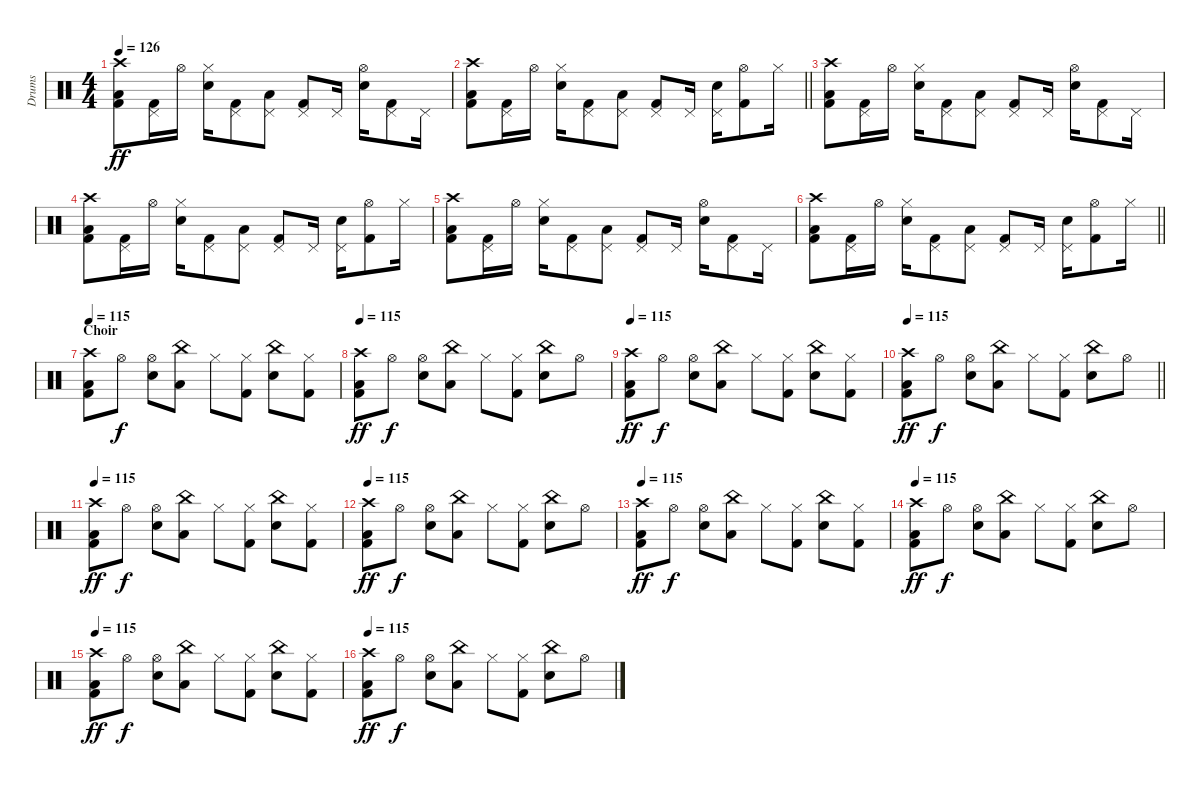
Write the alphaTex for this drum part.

\track ("Drums" "Drums") {instrument percussion}
\staff {score}
\articulation defaults
\ts (4 4)
\tempo 126
\clef neutral
\ks c
("Low Tom (hit)" "Kick (hit) 2" "Crash high (hit)").8{dy ff} ("Kick (hit) 2" "Pedal Hi-Hat (hit)").16 "Hi-Hat (open)".16 ("Snare (hit) 2" "Hi-Hat (closed)").16 ("Kick (hit) 2" "Pedal Hi-Hat (hit)").8 ("Low Tom (hit)" "Pedal Hi-Hat (hit)").8 ("Kick (hit) 2" "Pedal Hi-Hat (hit)").8 "Pedal Hi-Hat (hit)".16 ("Snare (hit) 2" "Hi-Hat (open)").16 ("Kick (hit) 2" "Pedal Hi-Hat (hit)").8 "Pedal Hi-Hat (hit)".16 |
\barLineRight lightlight
("Low Tom (hit)" "Kick (hit) 2" "Crash high (hit)").8 ("Kick (hit) 2" "Pedal Hi-Hat (hit)").16 "Hi-Hat (open)".16 ("Snare (hit) 2" "Hi-Hat (closed)").16 ("Kick (hit) 2" "Pedal Hi-Hat (hit)").8 ("Low Tom (hit)" "Pedal Hi-Hat (hit)").8 ("Kick (hit) 2" "Pedal Hi-Hat (hit)").8 "Pedal Hi-Hat (hit)".16 ("Snare (hit) 2" "Pedal Hi-Hat (hit)").16 ("Kick (hit) 2" "Hi-Hat (open)").8 "Hi-Hat (closed)".16 |
("Low Tom (hit)" "Kick (hit) 2" "Crash high (hit)").8 ("Kick (hit) 2" "Pedal Hi-Hat (hit)").16 "Hi-Hat (open)".16 ("Snare (hit) 2" "Hi-Hat (closed)").16 ("Kick (hit) 2" "Pedal Hi-Hat (hit)").8 ("Low Tom (hit)" "Pedal Hi-Hat (hit)").8 ("Kick (hit) 2" "Pedal Hi-Hat (hit)").8 "Pedal Hi-Hat (hit)".16 ("Snare (hit) 2" "Hi-Hat (open)").16 ("Kick (hit) 2" "Pedal Hi-Hat (hit)").8 "Pedal Hi-Hat (hit)".16 |
("Low Tom (hit)" "Kick (hit) 2" "Crash high (hit)").8 ("Kick (hit) 2" "Pedal Hi-Hat (hit)").16 "Hi-Hat (open)".16 ("Snare (hit) 2" "Hi-Hat (closed)").16 ("Kick (hit) 2" "Pedal Hi-Hat (hit)").8 ("Low Tom (hit)" "Pedal Hi-Hat (hit)").8 ("Kick (hit) 2" "Pedal Hi-Hat (hit)").8 "Pedal Hi-Hat (hit)".16 ("Snare (hit) 2" "Pedal Hi-Hat (hit)").16 ("Kick (hit) 2" "Hi-Hat (open)").8 "Hi-Hat (closed)".16 |
("Low Tom (hit)" "Kick (hit) 2" "Crash high (hit)").8 ("Kick (hit) 2" "Pedal Hi-Hat (hit)").16 "Hi-Hat (open)".16 ("Snare (hit) 2" "Hi-Hat (closed)").16 ("Kick (hit) 2" "Pedal Hi-Hat (hit)").8 ("Low Tom (hit)" "Pedal Hi-Hat (hit)").8 ("Kick (hit) 2" "Pedal Hi-Hat (hit)").8 "Pedal Hi-Hat (hit)".16 ("Snare (hit) 2" "Hi-Hat (open)").16 ("Kick (hit) 2" "Pedal Hi-Hat (hit)").8 "Pedal Hi-Hat (hit)".16 |
\barLineRight lightlight
("Low Tom (hit)" "Kick (hit) 2" "Crash high (hit)").8 ("Kick (hit) 2" "Pedal Hi-Hat (hit)").16 "Hi-Hat (open)".16 ("Snare (hit) 2" "Hi-Hat (closed)").16 ("Kick (hit) 2" "Pedal Hi-Hat (hit)").8 ("Low Tom (hit)" "Pedal Hi-Hat (hit)").8 ("Kick (hit) 2" "Pedal Hi-Hat (hit)").8 "Pedal Hi-Hat (hit)".16 ("Snare (hit) 2" "Pedal Hi-Hat (hit)").16 ("Kick (hit) 2" "Hi-Hat (open)").8 "Hi-Hat (closed)".16 |
\section ("" "Choir")
\tempo 115
("Low Tom (hit)" "Kick (hit) 2" "Crash high (hit)").8 "Hi-Hat (open)".8{dy f} ("Snare (hit) 2" "Hi-Hat (open)").8 ("Low Tom (hit)" "China (hit)").8 "Hi-Hat (closed)".8 ("Kick (hit) 2" "Hi-Hat (closed)").8 ("Snare (hit) 2" "China (hit)").8 ("Kick (hit) 2" "Hi-Hat (closed)").8 |
\tempo 115
("Low Tom (hit)" "Kick (hit) 2" "Crash high (hit)").8{dy ff} "Hi-Hat (open)".8{dy f} ("Snare (hit) 2" "Hi-Hat (open)").8 ("Low Tom (hit)" "China (hit)").8 "Hi-Hat (closed)".8 ("Kick (hit) 2" "Hi-Hat (closed)").8 ("Snare (hit) 2" "China (hit)").8 "Hi-Hat (open)".8 |
\tempo 115
("Low Tom (hit)" "Kick (hit) 2" "Crash high (hit)").8{dy ff} "Hi-Hat (open)".8{dy f} ("Snare (hit) 2" "Hi-Hat (open)").8 ("Low Tom (hit)" "China (hit)").8 "Hi-Hat (closed)".8 ("Kick (hit) 2" "Hi-Hat (closed)").8 ("Snare (hit) 2" "China (hit)").8 ("Kick (hit) 2" "Hi-Hat (closed)").8 |
\tempo 115
\barLineRight lightlight
("Low Tom (hit)" "Kick (hit) 2" "Crash high (hit)").8{dy ff} "Hi-Hat (open)".8{dy f} ("Snare (hit) 2" "Hi-Hat (open)").8 ("Low Tom (hit)" "China (hit)").8 "Hi-Hat (closed)".8 ("Kick (hit) 2" "Hi-Hat (closed)").8 ("Snare (hit) 2" "China (hit)").8 "Hi-Hat (open)".8 |
\tempo 115
("Low Tom (hit)" "Kick (hit) 2" "Crash high (hit)").8{dy ff} "Hi-Hat (open)".8{dy f} ("Snare (hit) 2" "Hi-Hat (open)").8 ("Low Tom (hit)" "China (hit)").8 "Hi-Hat (closed)".8 ("Kick (hit) 2" "Hi-Hat (closed)").8 ("Snare (hit) 2" "China (hit)").8 ("Kick (hit) 2" "Hi-Hat (closed)").8 |
\tempo 115
("Low Tom (hit)" "Kick (hit) 2" "Crash high (hit)").8{dy ff} "Hi-Hat (open)".8{dy f} ("Snare (hit) 2" "Hi-Hat (open)").8 ("Low Tom (hit)" "China (hit)").8 "Hi-Hat (closed)".8 ("Kick (hit) 2" "Hi-Hat (closed)").8 ("Snare (hit) 2" "China (hit)").8 "Hi-Hat (open)".8 |
\tempo 115
("Low Tom (hit)" "Kick (hit) 2" "Crash high (hit)").8{dy ff} "Hi-Hat (open)".8{dy f} ("Snare (hit) 2" "Hi-Hat (open)").8 ("Low Tom (hit)" "China (hit)").8 "Hi-Hat (closed)".8 ("Kick (hit) 2" "Hi-Hat (closed)").8 ("Snare (hit) 2" "China (hit)").8 ("Kick (hit) 2" "Hi-Hat (closed)").8 |
\tempo 115
("Low Tom (hit)" "Kick (hit) 2" "Crash high (hit)").8{dy ff} "Hi-Hat (open)".8{dy f} ("Snare (hit) 2" "Hi-Hat (open)").8 ("Low Tom (hit)" "China (hit)").8 "Hi-Hat (closed)".8 ("Kick (hit) 2" "Hi-Hat (closed)").8 ("Snare (hit) 2" "China (hit)").8 "Hi-Hat (open)".8 |
\tempo 115
("Low Tom (hit)" "Kick (hit) 2" "Crash high (hit)").8{dy ff} "Hi-Hat (open)".8{dy f} ("Snare (hit) 2" "Hi-Hat (open)").8 ("Low Tom (hit)" "China (hit)").8 "Hi-Hat (closed)".8 ("Kick (hit) 2" "Hi-Hat (closed)").8 ("Snare (hit) 2" "China (hit)").8 ("Kick (hit) 2" "Hi-Hat (closed)").8 |
\tempo 115
("Low Tom (hit)" "Kick (hit) 2" "Crash high (hit)").8{dy ff} "Hi-Hat (open)".8{dy f} ("Snare (hit) 2" "Hi-Hat (open)").8 ("Low Tom (hit)" "China (hit)").8 "Hi-Hat (closed)".8 ("Kick (hit) 2" "Hi-Hat (closed)").8 ("Snare (hit) 2" "China (hit)").8 "Hi-Hat (open)".8
